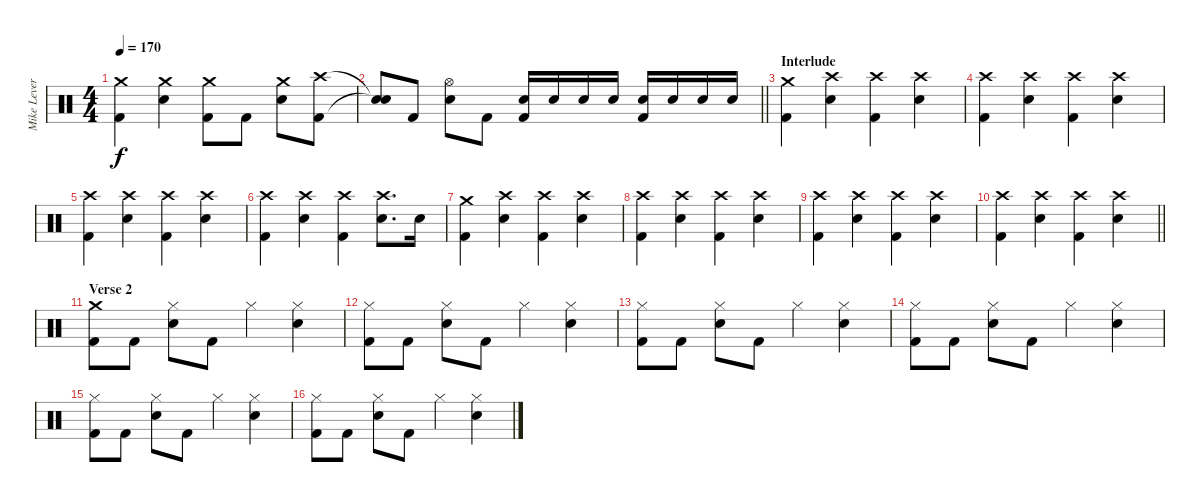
\track ("Mike Leverence - Drums" "Mike Lever") {instrument percussion}
\staff {score}
\articulation defaults
\ts (4 4)
\tempo 170
\clef neutral
\ks c
("Crash medium (hit)" "Kick (hit) 2").4{dy f} ("Crash medium (hit)" "Electric Snare (hit)").4 ("Crash medium (hit)" "Kick (hit) 2").8 "Kick (hit) 2".8 ("Crash medium (hit)" "Electric Snare (hit)").8 ("Crash high (hit)" "Kick (hit) 2").8 |
\barLineRight lightlight
("Snare (hit)"{t} "Snare (hit)"{t}).8 "Kick (hit) 2".8 ("Hi-Hat (open)" "Electric Snare (hit)").8 "Kick (hit) 2".8 ("Electric Snare (hit)" "Kick (hit) 2").16 "Electric Snare (hit)".16 "Electric Snare (hit)".16 "Electric Snare (hit)".16 ("Electric Snare (hit)" "Kick (hit) 2").16 "Electric Snare (hit)".16 "Electric Snare (hit)".16 "Electric Snare (hit)".16 |
\section ("" "Interlude")
("Crash medium (hit)" "Kick (hit) 2").4 ("Crash high (hit)" "Electric Snare (hit)").4 ("Crash high (hit)" "Kick (hit) 2").4 ("Crash high (hit)" "Electric Snare (hit)").4 |
("Crash high (hit)" "Kick (hit) 2").4 ("Crash high (hit)" "Electric Snare (hit)").4 ("Crash high (hit)" "Kick (hit) 2").4 ("Crash high (hit)" "Electric Snare (hit)").4 |
("Crash high (hit)" "Kick (hit) 2").4 ("Crash high (hit)" "Electric Snare (hit)").4 ("Crash high (hit)" "Kick (hit) 2").4 ("Crash high (hit)" "Electric Snare (hit)").4 |
("Crash high (hit)" "Kick (hit) 2").4 ("Crash high (hit)" "Electric Snare (hit)").4 ("Crash high (hit)" "Kick (hit) 2").4 ("Crash high (hit)" "Electric Snare (hit)").8{d} "Electric Snare (hit)".16 |
("Crash medium (hit)" "Kick (hit) 2").4 ("Crash high (hit)" "Electric Snare (hit)").4 ("Crash high (hit)" "Kick (hit) 2").4 ("Crash high (hit)" "Electric Snare (hit)").4 |
("Crash high (hit)" "Kick (hit) 2").4 ("Crash high (hit)" "Electric Snare (hit)").4 ("Crash high (hit)" "Kick (hit) 2").4 ("Crash high (hit)" "Electric Snare (hit)").4 |
("Crash high (hit)" "Kick (hit) 2").4 ("Crash high (hit)" "Electric Snare (hit)").4 ("Crash high (hit)" "Kick (hit) 2").4 ("Crash high (hit)" "Electric Snare (hit)").4 |
\barLineRight lightlight
("Crash high (hit)" "Kick (hit) 2").4 ("Crash high (hit)" "Electric Snare (hit)").4 ("Crash high (hit)" "Kick (hit) 2").4 ("Crash high (hit)" "Electric Snare (hit)").4 |
\section ("" "Verse 2")
("Crash medium (hit)" "Kick (hit) 2").8 "Kick (hit) 2".8 ("Hi-Hat (closed)" "Electric Snare (hit)").8 "Kick (hit) 2".8 "Hi-Hat (closed)".4 ("Hi-Hat (closed)" "Electric Snare (hit)").4 |
("Hi-Hat (closed)" "Kick (hit) 2").8 "Kick (hit) 2".8 ("Hi-Hat (closed)" "Electric Snare (hit)").8 "Kick (hit) 2".8 "Hi-Hat (closed)".4 ("Hi-Hat (closed)" "Electric Snare (hit)").4 |
("Hi-Hat (closed)" "Kick (hit) 2").8 "Kick (hit) 2".8 ("Hi-Hat (closed)" "Electric Snare (hit)").8 "Kick (hit) 2".8 "Hi-Hat (closed)".4 ("Hi-Hat (closed)" "Electric Snare (hit)").4 |
("Hi-Hat (closed)" "Kick (hit) 2").8 "Kick (hit) 2".8 ("Hi-Hat (closed)" "Electric Snare (hit)").8 "Kick (hit) 2".8 "Hi-Hat (closed)".4 ("Hi-Hat (closed)" "Electric Snare (hit)").4 |
("Hi-Hat (closed)" "Kick (hit) 2").8 "Kick (hit) 2".8 ("Hi-Hat (closed)" "Electric Snare (hit)").8 "Kick (hit) 2".8 "Hi-Hat (closed)".4 ("Hi-Hat (closed)" "Electric Snare (hit)").4 |
("Hi-Hat (closed)" "Kick (hit) 2").8 "Kick (hit) 2".8 ("Hi-Hat (closed)" "Electric Snare (hit)").8 "Kick (hit) 2".8 "Hi-Hat (closed)".4 ("Hi-Hat (closed)" "Electric Snare (hit)").4
